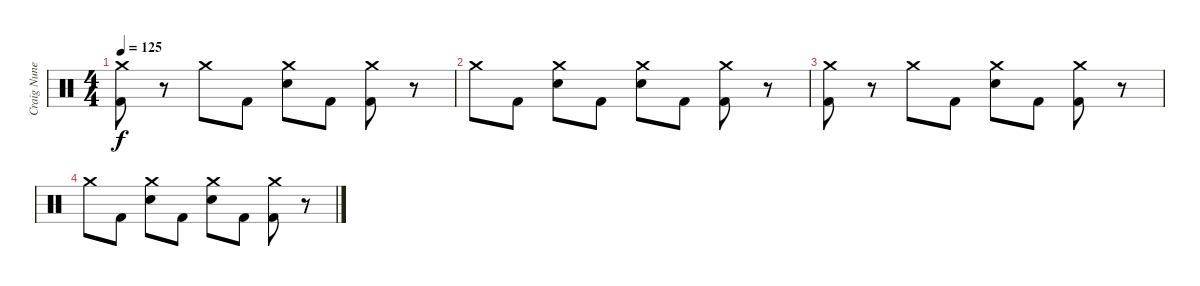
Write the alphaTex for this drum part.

\track ("Craig Nunenmacher (Drums)" "Craig Nune") {instrument percussion}
\staff {score}
\articulation defaults
\ts (4 4)
\tempo 125
\clef neutral
\ks c
("Crash medium (hit)" "Kick (hit) 2").8{dy f} r.8 "Crash medium (hit)".8 "Kick (hit) 2".8 ("Crash medium (hit)" "Snare (hit) 2").8 "Kick (hit) 2".8 ("Crash medium (hit)" "Kick (hit) 2").8 r.8 |
"Crash medium (hit)".8 "Kick (hit) 2".8 ("Crash medium (hit)" "Snare (hit) 2").8 "Kick (hit) 2".8 ("Crash medium (hit)" "Snare (hit) 2").8 "Kick (hit) 2".8 ("Crash medium (hit)" "Kick (hit) 2").8 r.8 |
("Crash medium (hit)" "Kick (hit) 2").8 r.8 "Crash medium (hit)".8 "Kick (hit) 2".8 ("Crash medium (hit)" "Snare (hit) 2").8 "Kick (hit) 2".8 ("Crash medium (hit)" "Kick (hit) 2").8 r.8 |
"Crash medium (hit)".8 "Kick (hit) 2".8 ("Crash medium (hit)" "Snare (hit) 2").8 "Kick (hit) 2".8 ("Crash medium (hit)" "Snare (hit) 2").8 "Kick (hit) 2".8 ("Crash medium (hit)" "Kick (hit) 2").8 r.8
